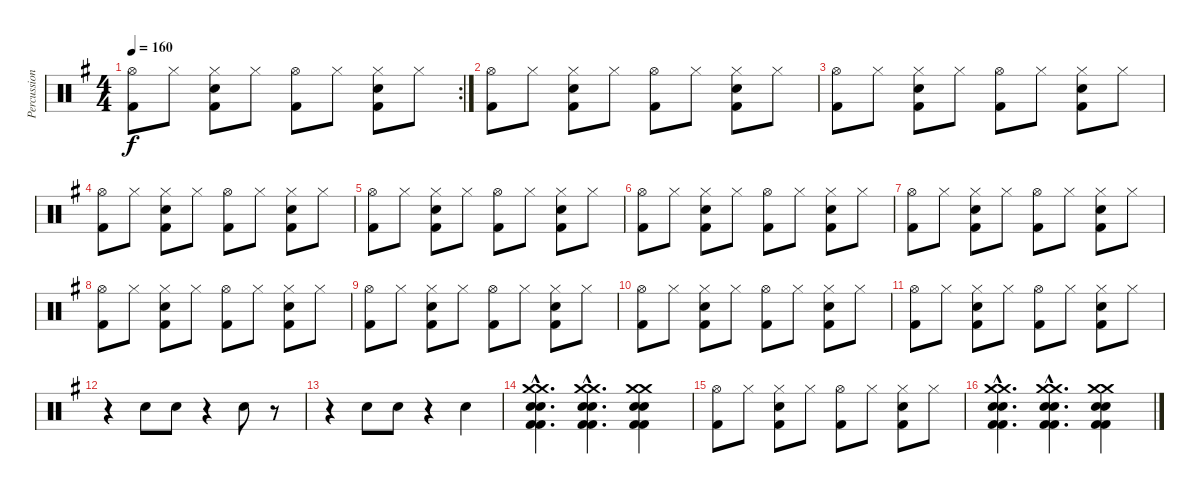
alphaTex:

\track ("Percussions" "Percussion") {instrument percussion}
\staff {score}
\articulation defaults
\rc 2
\ts (4 4)
\tempo 160
\clef neutral
\ks g
("Hi-Hat (open)" "Kick (hit) 2").8{dy f} "Hi-Hat (closed)".8 ("Hi-Hat (closed)" "Snare (hit) 2" "Kick (hit) 2").8 "Hi-Hat (closed)".8 ("Hi-Hat (open)" "Kick (hit) 2").8 "Hi-Hat (closed)".8 ("Hi-Hat (closed)" "Snare (hit) 2" "Kick (hit) 2").8 "Hi-Hat (closed)".8 |
("Hi-Hat (open)" "Kick (hit) 2").8 "Hi-Hat (closed)".8 ("Hi-Hat (closed)" "Snare (hit) 2" "Kick (hit) 2").8 "Hi-Hat (closed)".8 ("Hi-Hat (open)" "Kick (hit) 2").8 "Hi-Hat (closed)".8 ("Hi-Hat (closed)" "Snare (hit) 2" "Kick (hit) 2").8 "Hi-Hat (closed)".8 |
("Hi-Hat (open)" "Kick (hit) 2").8 "Hi-Hat (closed)".8 ("Hi-Hat (closed)" "Snare (hit) 2" "Kick (hit) 2").8 "Hi-Hat (closed)".8 ("Hi-Hat (open)" "Kick (hit) 2").8 "Hi-Hat (closed)".8 ("Hi-Hat (closed)" "Snare (hit) 2" "Kick (hit) 2").8 "Hi-Hat (closed)".8 |
("Hi-Hat (open)" "Kick (hit) 2").8 "Hi-Hat (closed)".8 ("Hi-Hat (closed)" "Snare (hit) 2" "Kick (hit) 2").8 "Hi-Hat (closed)".8 ("Hi-Hat (open)" "Kick (hit) 2").8 "Hi-Hat (closed)".8 ("Hi-Hat (closed)" "Snare (hit) 2" "Kick (hit) 2").8 "Hi-Hat (closed)".8 |
("Hi-Hat (open)" "Kick (hit) 2").8 "Hi-Hat (closed)".8 ("Hi-Hat (closed)" "Snare (hit) 2" "Kick (hit) 2").8 "Hi-Hat (closed)".8 ("Hi-Hat (open)" "Kick (hit) 2").8 "Hi-Hat (closed)".8 ("Hi-Hat (closed)" "Snare (hit) 2" "Kick (hit) 2").8 "Hi-Hat (closed)".8 |
("Hi-Hat (open)" "Kick (hit) 2").8 "Hi-Hat (closed)".8 ("Hi-Hat (closed)" "Snare (hit) 2" "Kick (hit) 2").8 "Hi-Hat (closed)".8 ("Hi-Hat (open)" "Kick (hit) 2").8 "Hi-Hat (closed)".8 ("Hi-Hat (closed)" "Snare (hit) 2" "Kick (hit) 2").8 "Hi-Hat (closed)".8 |
("Hi-Hat (open)" "Kick (hit) 2").8 "Hi-Hat (closed)".8 ("Hi-Hat (closed)" "Snare (hit) 2" "Kick (hit) 2").8 "Hi-Hat (closed)".8 ("Hi-Hat (open)" "Kick (hit) 2").8 "Hi-Hat (closed)".8 ("Hi-Hat (closed)" "Snare (hit) 2" "Kick (hit) 2").8 "Hi-Hat (closed)".8 |
("Hi-Hat (open)" "Kick (hit) 2").8 "Hi-Hat (closed)".8 ("Hi-Hat (closed)" "Snare (hit) 2" "Kick (hit) 2").8 "Hi-Hat (closed)".8 ("Hi-Hat (open)" "Kick (hit) 2").8 "Hi-Hat (closed)".8 ("Hi-Hat (closed)" "Snare (hit) 2" "Kick (hit) 2").8 "Hi-Hat (closed)".8 |
("Hi-Hat (open)" "Kick (hit) 2").8 "Hi-Hat (closed)".8 ("Hi-Hat (closed)" "Snare (hit) 2" "Kick (hit) 2").8 "Hi-Hat (closed)".8 ("Hi-Hat (open)" "Kick (hit) 2").8 "Hi-Hat (closed)".8 ("Hi-Hat (closed)" "Snare (hit) 2" "Kick (hit) 2").8 "Hi-Hat (closed)".8 |
("Hi-Hat (open)" "Kick (hit) 2").8 "Hi-Hat (closed)".8 ("Hi-Hat (closed)" "Snare (hit) 2" "Kick (hit) 2").8 "Hi-Hat (closed)".8 ("Hi-Hat (open)" "Kick (hit) 2").8 "Hi-Hat (closed)".8 ("Hi-Hat (closed)" "Snare (hit) 2" "Kick (hit) 2").8 "Hi-Hat (closed)".8 |
("Hi-Hat (open)" "Kick (hit) 2").8 "Hi-Hat (closed)".8 ("Hi-Hat (closed)" "Snare (hit) 2" "Kick (hit) 2").8 "Hi-Hat (closed)".8 ("Hi-Hat (open)" "Kick (hit) 2").8 "Hi-Hat (closed)".8 ("Hi-Hat (closed)" "Snare (hit) 2" "Kick (hit) 2").8 "Hi-Hat (closed)".8 |
r.4 "Hand Clap (hit)".8 "Hand Clap (hit)".8 r.4 "Hand Clap (hit)".8 r.8 |
r.4 "Hand Clap (hit)".8 "Hand Clap (hit)".8 r.4 "Hand Clap (hit)".4 |
("Crash medium (hit)"{hac} "Crash medium (hit)"{hac} "Snare (hit) 2"{hac} "Snare (hit) 2"{hac} "Kick (hit) 2"{hac} "Kick (hit) 2"{hac}).4{d} ("Crash medium (hit)"{hac} "Crash medium (hit)"{hac} "Snare (hit) 2"{hac} "Snare (hit) 2"{hac} "Kick (hit) 2"{hac} "Kick (hit) 2"{hac}).4{d} ("Crash medium (hit)" "Crash medium (hit)" "Snare (hit) 2" "Snare (hit) 2" "Kick (hit) 2" "Kick (hit) 2").4 |
("Hi-Hat (open)" "Kick (hit) 2").8 "Hi-Hat (closed)".8 ("Hi-Hat (closed)" "Snare (hit) 2" "Kick (hit) 2").8 "Hi-Hat (closed)".8 ("Hi-Hat (open)" "Kick (hit) 2").8 "Hi-Hat (closed)".8 ("Hi-Hat (closed)" "Snare (hit) 2" "Kick (hit) 2").8 "Hi-Hat (closed)".8 |
("Crash medium (hit)"{hac} "Crash medium (hit)"{hac} "Snare (hit) 2"{hac} "Snare (hit) 2"{hac} "Kick (hit) 2"{hac} "Kick (hit) 2"{hac}).4{d} ("Crash medium (hit)"{hac} "Crash medium (hit)"{hac} "Snare (hit) 2"{hac} "Snare (hit) 2"{hac} "Kick (hit) 2"{hac} "Kick (hit) 2"{hac}).4{d} ("Crash medium (hit)" "Crash medium (hit)" "Snare (hit) 2" "Snare (hit) 2" "Kick (hit) 2" "Kick (hit) 2").4
